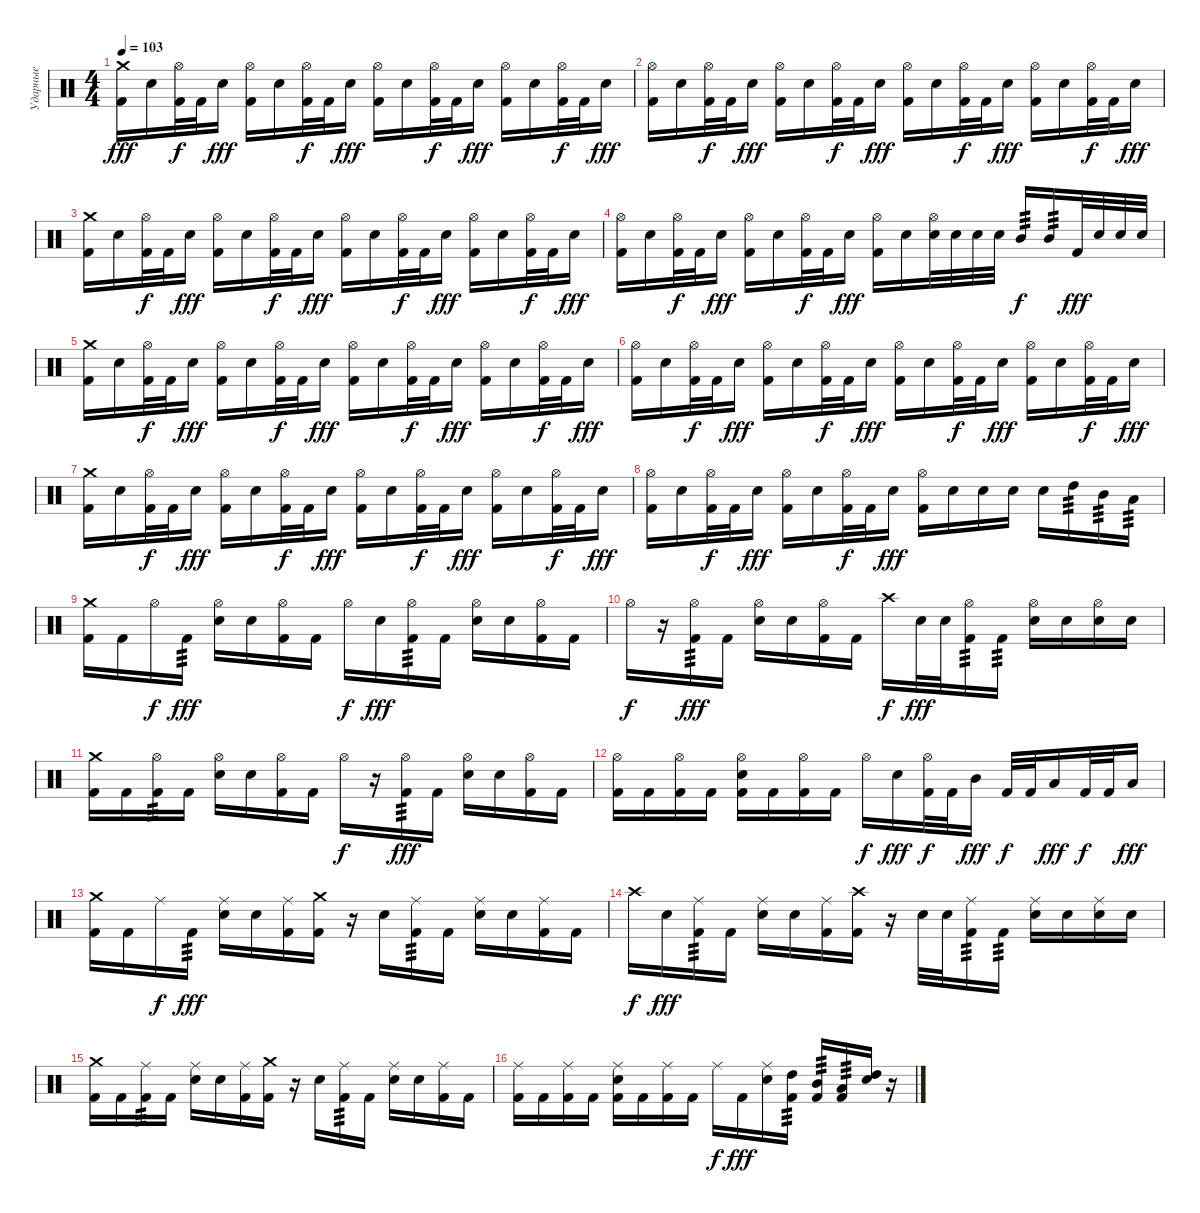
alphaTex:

\track ("Ударные" "Ударные") {instrument percussion}
\staff {score}
\articulation defaults
\ts (4 4)
\tempo 103
\clef neutral
\ks c
("Crash medium (hit)" "Kick (hit) 2").16{dy fff} "Snare (hit) 2".16 ("Hi-Hat (open)" "Kick (hit) 2").32{dy f} "Kick (hit) 2".32 "Snare (hit) 2".16{dy fff} ("Hi-Hat (open)" "Kick (hit) 2").16 "Snare (hit) 2".16 ("Hi-Hat (open)" "Kick (hit) 2").32{dy f} "Kick (hit) 2".32 "Snare (hit) 2".16{dy fff} ("Hi-Hat (open)" "Kick (hit) 2").16 "Snare (hit) 2".16 ("Hi-Hat (open)" "Kick (hit) 2").32{dy f} "Kick (hit) 2".32 "Snare (hit) 2".16{dy fff} ("Hi-Hat (open)" "Kick (hit) 2").16 "Snare (hit) 2".16 ("Hi-Hat (open)" "Kick (hit) 2").32{dy f} "Kick (hit) 2".32 "Snare (hit) 2".16{dy fff} |
("Hi-Hat (open)" "Kick (hit) 2").16 "Snare (hit) 2".16 ("Hi-Hat (open)" "Kick (hit) 2").32{dy f} "Kick (hit) 2".32 "Snare (hit) 2".16{dy fff} ("Hi-Hat (open)" "Kick (hit) 2").16 "Snare (hit) 2".16 ("Hi-Hat (open)" "Kick (hit) 2").32{dy f} "Kick (hit) 2".32 "Snare (hit) 2".16{dy fff} ("Hi-Hat (open)" "Kick (hit) 2").16 "Snare (hit) 2".16 ("Hi-Hat (open)" "Kick (hit) 2").32{dy f} "Kick (hit) 2".32 "Snare (hit) 2".16{dy fff} ("Hi-Hat (open)" "Kick (hit) 2").16 "Snare (hit) 2".16 ("Hi-Hat (open)" "Kick (hit) 2").32{dy f} "Kick (hit) 2".32 "Snare (hit) 2".16{dy fff} |
("Crash medium (hit)" "Kick (hit) 2").16 "Snare (hit) 2".16 ("Hi-Hat (open)" "Kick (hit) 2").32{dy f} "Kick (hit) 2".32 "Snare (hit) 2".16{dy fff} ("Hi-Hat (open)" "Kick (hit) 2").16 "Snare (hit) 2".16 ("Hi-Hat (open)" "Kick (hit) 2").32{dy f} "Kick (hit) 2".32 "Snare (hit) 2".16{dy fff} ("Hi-Hat (open)" "Kick (hit) 2").16 "Snare (hit) 2".16 ("Hi-Hat (open)" "Kick (hit) 2").32{dy f} "Kick (hit) 2".32 "Snare (hit) 2".16{dy fff} ("Hi-Hat (open)" "Kick (hit) 2").16 "Snare (hit) 2".16 ("Hi-Hat (open)" "Kick (hit) 2").32{dy f} "Kick (hit) 2".32 "Snare (hit) 2".16{dy fff} |
("Hi-Hat (open)" "Kick (hit) 2").16 "Snare (hit) 2".16 ("Hi-Hat (open)" "Kick (hit) 2").32{dy f} "Kick (hit) 2".32 "Snare (hit) 2".16{dy fff} ("Hi-Hat (open)" "Kick (hit) 2").16 "Snare (hit) 2".16 ("Hi-Hat (open)" "Kick (hit) 2").32{dy f} "Kick (hit) 2".32 "Snare (hit) 2".16{dy fff} ("Hi-Hat (open)" "Kick (hit) 2").16 "Snare (hit) 2".16 ("Hi-Hat (open)" "Snare (hit) 2").32 "Snare (hit) 2".32 "Snare (hit) 2".32 "Snare (hit) 2".32 "Mid Tom (hit)".16{tp 3 dy f} "Mid Tom (hit)".16{tp 3} "Kick (hit) 2".32{dy fff} "Snare (hit) 2".32 "Snare (hit) 2".32 "Snare (hit) 2".32 |
("Crash medium (hit)" "Kick (hit) 2").16 "Snare (hit) 2".16 ("Hi-Hat (open)" "Kick (hit) 2").32{dy f} "Kick (hit) 2".32 "Snare (hit) 2".16{dy fff} ("Hi-Hat (open)" "Kick (hit) 2").16 "Snare (hit) 2".16 ("Hi-Hat (open)" "Kick (hit) 2").32{dy f} "Kick (hit) 2".32 "Snare (hit) 2".16{dy fff} ("Hi-Hat (open)" "Kick (hit) 2").16 "Snare (hit) 2".16 ("Hi-Hat (open)" "Kick (hit) 2").32{dy f} "Kick (hit) 2".32 "Snare (hit) 2".16{dy fff} ("Hi-Hat (open)" "Kick (hit) 2").16 "Snare (hit) 2".16 ("Hi-Hat (open)" "Kick (hit) 2").32{dy f} "Kick (hit) 2".32 "Snare (hit) 2".16{dy fff} |
("Hi-Hat (open)" "Kick (hit) 2").16 "Snare (hit) 2".16 ("Hi-Hat (open)" "Kick (hit) 2").32{dy f} "Kick (hit) 2".32 "Snare (hit) 2".16{dy fff} ("Hi-Hat (open)" "Kick (hit) 2").16 "Snare (hit) 2".16 ("Hi-Hat (open)" "Kick (hit) 2").32{dy f} "Kick (hit) 2".32 "Snare (hit) 2".16{dy fff} ("Hi-Hat (open)" "Kick (hit) 2").16 "Snare (hit) 2".16 ("Hi-Hat (open)" "Kick (hit) 2").32{dy f} "Kick (hit) 2".32 "Snare (hit) 2".16{dy fff} ("Hi-Hat (open)" "Kick (hit) 2").16 "Snare (hit) 2".16 ("Hi-Hat (open)" "Kick (hit) 2").32{dy f} "Kick (hit) 2".32 "Snare (hit) 2".16{dy fff} |
("Crash medium (hit)" "Kick (hit) 2").16 "Snare (hit) 2".16 ("Hi-Hat (open)" "Kick (hit) 2").32{dy f} "Kick (hit) 2".32 "Snare (hit) 2".16{dy fff} ("Hi-Hat (open)" "Kick (hit) 2").16 "Snare (hit) 2".16 ("Hi-Hat (open)" "Kick (hit) 2").32{dy f} "Kick (hit) 2".32 "Snare (hit) 2".16{dy fff} ("Hi-Hat (open)" "Kick (hit) 2").16 "Snare (hit) 2".16 ("Hi-Hat (open)" "Kick (hit) 2").32{dy f} "Kick (hit) 2".32 "Snare (hit) 2".16{dy fff} ("Hi-Hat (open)" "Kick (hit) 2").16 "Snare (hit) 2".16 ("Hi-Hat (open)" "Kick (hit) 2").32{dy f} "Kick (hit) 2".32 "Snare (hit) 2".16{dy fff} |
("Hi-Hat (open)" "Kick (hit) 2").16 "Snare (hit) 2".16 ("Hi-Hat (open)" "Kick (hit) 2").32{dy f} "Kick (hit) 2".32 "Snare (hit) 2".16{dy fff} ("Hi-Hat (open)" "Kick (hit) 2").16 "Snare (hit) 2".16 ("Hi-Hat (open)" "Kick (hit) 2").32{dy f} "Kick (hit) 2".32 "Snare (hit) 2".16{dy fff} ("Hi-Hat (open)" "Kick (hit) 2").16 "Snare (hit) 2".16 "Snare (hit) 2".16 "Snare (hit) 2".16 "Snare (hit) 2".16 "High Tom (hit)".16{tp 3} "Mid Tom (hit)".16{tp 3} "Low Tom (hit)".16{tp 3} |
("Crash medium (hit)" "Kick (hit) 2").16 "Kick (hit) 2".16 "Hi-Hat (open)".16{dy f} "Kick (hit) 2".16{tp 3 dy fff} ("Hi-Hat (open)" "Snare (hit) 2").16 "Snare (hit) 2".16 ("Hi-Hat (open)" "Kick (hit) 2").16 "Kick (hit) 2".16 "Hi-Hat (open)".16{dy f} "Snare (hit) 2".16{dy fff} ("Hi-Hat (open)" "Kick (hit) 2").16{tp 3} "Kick (hit) 2".16 ("Hi-Hat (open)" "Snare (hit) 2").16 "Snare (hit) 2".16 ("Hi-Hat (open)" "Kick (hit) 2").16 "Kick (hit) 2".16 |
"Hi-Hat (open)".16{dy f} r.16 ("Hi-Hat (open)" "Kick (hit) 2").16{tp 3 dy fff} "Kick (hit) 2".16 ("Hi-Hat (open)" "Snare (hit) 2").16 "Snare (hit) 2".16 ("Hi-Hat (open)" "Kick (hit) 2").16 "Kick (hit) 2".16 "Crash high (hit)".16{dy f} "Snare (hit) 2".32{dy fff} "Snare (hit) 2".32 ("Hi-Hat (open)" "Kick (hit) 2").16{tp 3} "Kick (hit) 2".16{tp 3} ("Hi-Hat (open)" "Snare (hit) 2").16 "Snare (hit) 2".16 ("Hi-Hat (open)" "Snare (hit) 2").16 "Snare (hit) 2".16 |
("Crash medium (hit)" "Kick (hit) 2").16 "Kick (hit) 2".16 ("Hi-Hat (open)" "Kick (hit) 2").16{tp 3} "Kick (hit) 2".16 ("Hi-Hat (open)" "Snare (hit) 2").16 "Snare (hit) 2".16 ("Hi-Hat (open)" "Kick (hit) 2").16 "Kick (hit) 2".16 "Hi-Hat (open)".16{dy f} r.16 ("Hi-Hat (open)" "Kick (hit) 2").16{tp 3 dy fff} "Kick (hit) 2".16 ("Hi-Hat (open)" "Snare (hit) 2").16 "Snare (hit) 2".16 ("Hi-Hat (open)" "Kick (hit) 2").16 "Kick (hit) 2".16 |
("Hi-Hat (open)" "Kick (hit) 2").16 "Kick (hit) 2".16 ("Hi-Hat (open)" "Kick (hit) 2").16 "Kick (hit) 2".16 ("Hi-Hat (open)" "Snare (hit) 2" "Kick (hit) 2").16 "Kick (hit) 2".16 ("Hi-Hat (open)" "Kick (hit) 2").16 "Kick (hit) 2".16 "Hi-Hat (open)".16{dy f} "Snare (hit) 2".16{dy fff} ("Hi-Hat (open)" "Kick (hit) 2").32{dy f} "Kick (hit) 2".32 "Mid Tom (hit)".16{dy fff} "Kick (hit) 2".32{dy f} "Kick (hit) 2".32 "Low Tom (hit)".16{dy fff} "Kick (hit) 2".32{dy f} "Kick (hit) 2".32 "Low Tom (hit)".16{dy fff} |
("Crash medium (hit)" "Kick (hit) 2").16 "Kick (hit) 2".16 "Ride (middle)".16{dy f} "Kick (hit) 2".16{tp 3 dy fff} ("Ride (middle)" "Snare (hit) 2").16 "Snare (hit) 2".16 ("Ride (middle)" "Kick (hit) 2").16 ("Crash medium (hit)" "Kick (hit) 2").16 r.16 "Snare (hit) 2".16 ("Ride (middle)" "Kick (hit) 2").16{tp 3} "Kick (hit) 2".16 ("Ride (middle)" "Snare (hit) 2").16 "Snare (hit) 2".16 ("Ride (middle)" "Kick (hit) 2").16 "Kick (hit) 2".16 |
"Crash high (hit)".16{dy f} "Snare (hit) 2".16{dy fff} ("Ride (middle)" "Kick (hit) 2").16{tp 3} "Kick (hit) 2".16 ("Ride (middle)" "Snare (hit) 2").16 "Snare (hit) 2".16 ("Ride (middle)" "Kick (hit) 2").16 ("Crash high (hit)" "Kick (hit) 2").16 r.16 "Snare (hit) 2".32 "Snare (hit) 2".32 ("Ride (middle)" "Kick (hit) 2").16{tp 3} "Kick (hit) 2".16{tp 3} ("Ride (middle)" "Snare (hit) 2").16 "Snare (hit) 2".16 ("Ride (middle)" "Snare (hit) 2").16 "Snare (hit) 2".16 |
("Crash medium (hit)" "Kick (hit) 2").16 "Kick (hit) 2".16 ("Ride (middle)" "Kick (hit) 2").16{tp 3} "Kick (hit) 2".16 ("Ride (middle)" "Snare (hit) 2").16 "Snare (hit) 2".16 ("Ride (middle)" "Kick (hit) 2").16 ("Crash medium (hit)" "Kick (hit) 2").16 r.16 "Snare (hit) 2".16 ("Ride (middle)" "Kick (hit) 2").16{tp 3} "Kick (hit) 2".16 ("Ride (middle)" "Snare (hit) 2").16 "Snare (hit) 2".16 ("Ride (middle)" "Kick (hit) 2").16 "Kick (hit) 2".16 |
("Ride (middle)" "Kick (hit) 2").16 "Kick (hit) 2".16 ("Ride (middle)" "Kick (hit) 2").16 "Kick (hit) 2".16 ("Ride (middle)" "Snare (hit) 2" "Kick (hit) 2").16 "Kick (hit) 2".16 ("Ride (middle)" "Kick (hit) 2").16 "Kick (hit) 2".16 "Ride (middle)".16{dy f} "Kick (hit) 2".16{dy fff} ("Ride (middle)" "Snare (hit) 2").16 ("High Tom (hit)" "Kick (hit) 2").16{tp 3} ("Mid Tom (hit)" "Kick (hit) 2").16{tp 3} ("Low Tom (hit)" "Kick (hit) 2").16{tp 3} ("High Tom (hit)" "Snare (hit) 2").16 r.16
